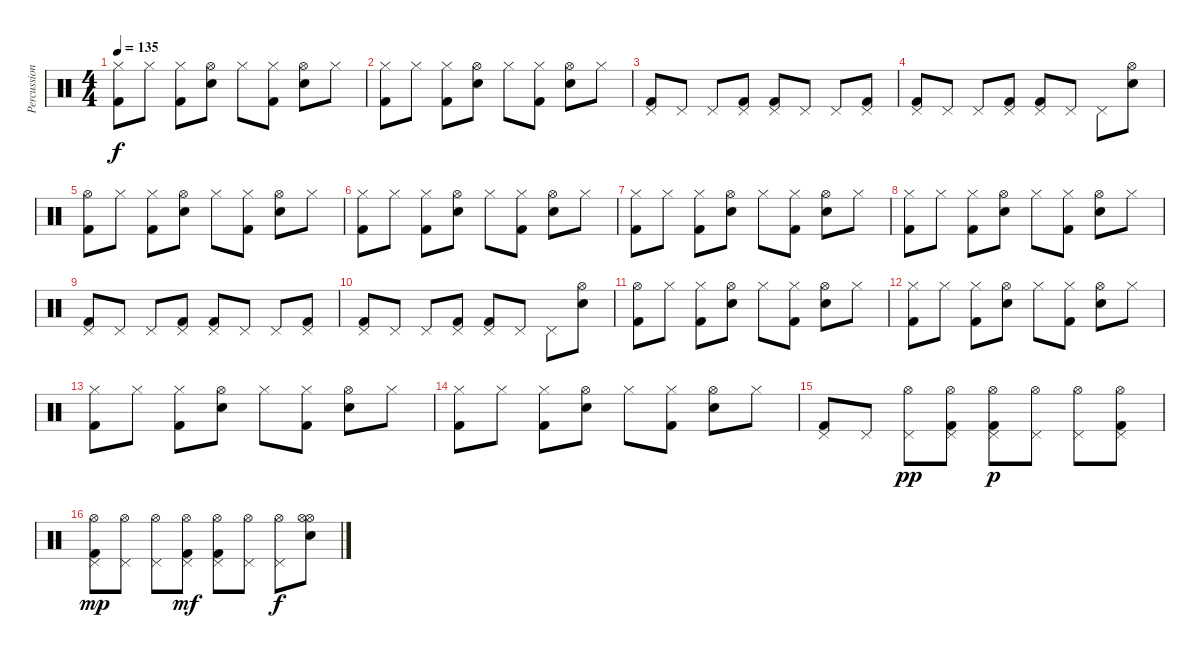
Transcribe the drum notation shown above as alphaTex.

\track ("Percussions" "Percussion") {instrument percussion}
\staff {score}
\articulation defaults
\ts (4 4)
\tempo 135
\clef neutral
\ks c
("Hi-Hat (closed)" "Kick (hit) 2").8{dy f} "Hi-Hat (closed)".8 ("Hi-Hat (closed)" "Kick (hit) 2").8 ("Hi-Hat (open)" "Snare (hit) 2").8 "Hi-Hat (closed)".8 ("Hi-Hat (closed)" "Kick (hit) 2").8 ("Hi-Hat (open)" "Snare (hit) 2").8 "Hi-Hat (closed)".8 |
("Hi-Hat (closed)" "Kick (hit) 2").8 "Hi-Hat (closed)".8 ("Hi-Hat (closed)" "Kick (hit) 2").8 ("Hi-Hat (open)" "Snare (hit) 2").8 "Hi-Hat (closed)".8 ("Hi-Hat (closed)" "Kick (hit) 2").8 ("Hi-Hat (open)" "Snare (hit) 2").8 "Hi-Hat (closed)".8 |
("Pedal Hi-Hat (hit)" "Kick (hit) 2").8 "Pedal Hi-Hat (hit)".8 "Pedal Hi-Hat (hit)".8 ("Pedal Hi-Hat (hit)" "Kick (hit) 2").8 ("Pedal Hi-Hat (hit)" "Kick (hit) 2").8 "Pedal Hi-Hat (hit)".8 "Pedal Hi-Hat (hit)".8 ("Pedal Hi-Hat (hit)" "Kick (hit) 2").8 |
("Pedal Hi-Hat (hit)" "Kick (hit) 2").8 "Pedal Hi-Hat (hit)".8 "Pedal Hi-Hat (hit)".8 ("Pedal Hi-Hat (hit)" "Kick (hit) 2").8 ("Pedal Hi-Hat (hit)" "Kick (hit) 2").8 "Pedal Hi-Hat (hit)".8 "Pedal Hi-Hat (hit)".8 ("Hi-Hat (open)" "Snare (hit) 2").8 |
("Hi-Hat (open)" "Kick (hit) 2").8 "Hi-Hat (closed)".8 ("Hi-Hat (closed)" "Kick (hit) 2").8 ("Hi-Hat (open)" "Snare (hit) 2").8 "Hi-Hat (closed)".8 ("Hi-Hat (closed)" "Kick (hit) 2").8 ("Hi-Hat (open)" "Snare (hit) 2").8 "Hi-Hat (closed)".8 |
("Hi-Hat (closed)" "Kick (hit) 2").8 "Hi-Hat (closed)".8 ("Hi-Hat (closed)" "Kick (hit) 2").8 ("Hi-Hat (open)" "Snare (hit) 2").8 "Hi-Hat (closed)".8 ("Hi-Hat (closed)" "Kick (hit) 2").8 ("Hi-Hat (open)" "Snare (hit) 2").8 "Hi-Hat (closed)".8 |
("Hi-Hat (closed)" "Kick (hit) 2").8 "Hi-Hat (closed)".8 ("Hi-Hat (closed)" "Kick (hit) 2").8 ("Hi-Hat (open)" "Snare (hit) 2").8 "Hi-Hat (closed)".8 ("Hi-Hat (closed)" "Kick (hit) 2").8 ("Hi-Hat (open)" "Snare (hit) 2").8 "Hi-Hat (closed)".8 |
("Hi-Hat (closed)" "Kick (hit) 2").8 "Hi-Hat (closed)".8 ("Hi-Hat (closed)" "Kick (hit) 2").8 ("Hi-Hat (open)" "Snare (hit) 2").8 "Hi-Hat (closed)".8 ("Hi-Hat (closed)" "Kick (hit) 2").8 ("Hi-Hat (open)" "Snare (hit) 2").8 "Hi-Hat (closed)".8 |
("Pedal Hi-Hat (hit)" "Kick (hit) 2").8 "Pedal Hi-Hat (hit)".8 "Pedal Hi-Hat (hit)".8 ("Pedal Hi-Hat (hit)" "Kick (hit) 2").8 ("Pedal Hi-Hat (hit)" "Kick (hit) 2").8 "Pedal Hi-Hat (hit)".8 "Pedal Hi-Hat (hit)".8 ("Pedal Hi-Hat (hit)" "Kick (hit) 2").8 |
("Pedal Hi-Hat (hit)" "Kick (hit) 2").8 "Pedal Hi-Hat (hit)".8 "Pedal Hi-Hat (hit)".8 ("Pedal Hi-Hat (hit)" "Kick (hit) 2").8 ("Pedal Hi-Hat (hit)" "Kick (hit) 2").8 "Pedal Hi-Hat (hit)".8 "Pedal Hi-Hat (hit)".8 ("Hi-Hat (open)" "Snare (hit) 2").8 |
("Hi-Hat (open)" "Kick (hit) 2").8 "Hi-Hat (closed)".8 ("Hi-Hat (closed)" "Kick (hit) 2").8 ("Hi-Hat (open)" "Snare (hit) 2").8 "Hi-Hat (closed)".8 ("Hi-Hat (closed)" "Kick (hit) 2").8 ("Hi-Hat (open)" "Snare (hit) 2").8 "Hi-Hat (closed)".8 |
("Hi-Hat (closed)" "Kick (hit) 2").8 "Hi-Hat (closed)".8 ("Hi-Hat (closed)" "Kick (hit) 2").8 ("Hi-Hat (open)" "Snare (hit) 2").8 "Hi-Hat (closed)".8 ("Hi-Hat (closed)" "Kick (hit) 2").8 ("Hi-Hat (open)" "Snare (hit) 2").8 "Hi-Hat (closed)".8 |
("Hi-Hat (closed)" "Kick (hit) 2").8 "Hi-Hat (closed)".8 ("Hi-Hat (closed)" "Kick (hit) 2").8 ("Hi-Hat (open)" "Snare (hit) 2").8 "Hi-Hat (closed)".8 ("Hi-Hat (closed)" "Kick (hit) 2").8 ("Hi-Hat (open)" "Snare (hit) 2").8 "Hi-Hat (closed)".8 |
("Hi-Hat (closed)" "Kick (hit) 2").8 "Hi-Hat (closed)".8 ("Hi-Hat (closed)" "Kick (hit) 2").8 ("Hi-Hat (open)" "Snare (hit) 2").8 "Hi-Hat (closed)".8 ("Hi-Hat (closed)" "Kick (hit) 2").8 ("Hi-Hat (open)" "Snare (hit) 2").8 "Hi-Hat (closed)".8 |
("Pedal Hi-Hat (hit)" "Kick (hit) 2").8 "Pedal Hi-Hat (hit)".8 ("Hi-Hat (open)" "Pedal Hi-Hat (hit)").8{dy pp} ("Hi-Hat (open)" "Pedal Hi-Hat (hit)" "Kick (hit) 2").8 ("Hi-Hat (open)" "Pedal Hi-Hat (hit)" "Kick (hit) 2").8{dy p} ("Hi-Hat (open)" "Pedal Hi-Hat (hit)").8 ("Hi-Hat (open)" "Pedal Hi-Hat (hit)").8 ("Hi-Hat (open)" "Pedal Hi-Hat (hit)" "Kick (hit) 2").8 |
("Hi-Hat (open)" "Pedal Hi-Hat (hit)" "Kick (hit) 2").8{dy mp} ("Hi-Hat (open)" "Pedal Hi-Hat (hit)").8 ("Hi-Hat (open)" "Pedal Hi-Hat (hit)").8 ("Hi-Hat (open)" "Pedal Hi-Hat (hit)" "Kick (hit) 2").8{dy mf} ("Hi-Hat (open)" "Pedal Hi-Hat (hit)" "Kick (hit) 2").8 ("Hi-Hat (open)" "Pedal Hi-Hat (hit)").8 ("Hi-Hat (open)" "Pedal Hi-Hat (hit)").8{dy f} ("Hi-Hat (open)" "Hi-Hat (open)" "Snare (hit) 2").8
